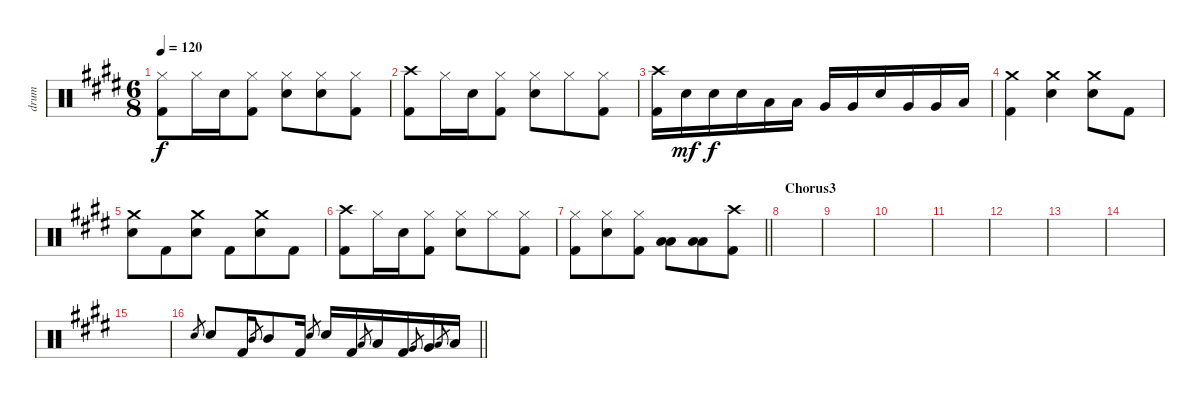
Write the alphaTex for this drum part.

\track ("drum" "drum") {instrument percussion}
\staff {score}
\articulation defaults
\ts (6 8)
\tempo 120
\clef neutral
\ks e
("Hi-Hat (closed)" "Kick (hit) 2").8{dy f} "Hi-Hat (closed)".16 "Snare (hit) 2".16 ("Hi-Hat (closed)" "Kick (hit) 2").8 ("Hi-Hat (closed)" "Snare (hit) 2").8 ("Hi-Hat (closed)" "Snare (hit) 2").8 ("Hi-Hat (closed)" "Kick (hit) 2").8 |
("Crash high (hit)" "Kick (hit) 2").8 "Hi-Hat (closed)".16 "Snare (hit) 2".16 ("Hi-Hat (closed)" "Kick (hit) 2").8 ("Hi-Hat (closed)" "Snare (hit) 2").8 "Hi-Hat (closed)".8 ("Hi-Hat (closed)" "Kick (hit) 2").8 |
("Crash high (hit)" "Kick (hit) 2").16 "Snare (hit) 2".16{dy mf} "Snare (hit) 2".16{dy f} "Snare (hit) 2".16 "Low Tom (hit)".16 "Low Tom (hit)".16 "Very Low Tom (hit)".16 "Very Low Tom (hit)".16 "Snare (hit) 2".16 "Very Low Tom (hit)".16 "Very Low Tom (hit)".16 "Low Floor Tom (hit)".16 |
("Crash medium (hit)" "Kick (hit) 2").4 ("Crash medium (hit)" "Snare (hit) 2").4 ("Crash medium (hit)" "Snare (hit) 2").8 "Kick (hit) 2".8 |
("Crash medium (hit)" "Snare (hit) 2").8 "Kick (hit) 2".8 ("Crash medium (hit)" "Snare (hit) 2").8 "Kick (hit) 2".8 ("Crash medium (hit)" "Snare (hit) 2").8 "Kick (hit) 2".8 |
("Crash high (hit)" "Kick (hit) 2").8 "Hi-Hat (closed)".16 "Snare (hit) 2".16 ("Hi-Hat (closed)" "Kick (hit) 2").8 ("Hi-Hat (closed)" "Snare (hit) 2").8 "Hi-Hat (closed)".8 ("Hi-Hat (closed)" "Kick (hit) 2").8 |
\barLineRight lightlight
("Hi-Hat (closed)" "Kick (hit) 2").8 ("Hi-Hat (closed)" "Snare (hit) 2").8 ("Hi-Hat (closed)" "Kick (hit) 2").8 ("Low Tom (hit)" "Low Floor Tom (hit)").8 ("Low Tom (hit)" "Low Floor Tom (hit)").8 ("Crash high (hit)" "Kick (hit) 2").8 |
\section ("" "Chorus3")
|
|
|
|
|
|
|
|
\barLineRight lightlight "Snare (hit) 2".8{gr} "Snare (hit) 2".8 "Kick (hit) 2".16 "Mid Tom (hit)".8{gr} "Mid Tom (hit)".8 "Kick (hit) 2".16 "Snare (hit) 2".8{gr} "Snare (hit) 2".16 "Kick (hit) 2".16 "Low Tom (hit)".8{gr} "Low Tom (hit)".16 "Kick (hit) 2".16 "Very Low Tom (hit)".8{gr} "Very Low Tom (hit)".16 "Low Floor Tom (hit)".8{gr} "Low Floor Tom (hit)".16
